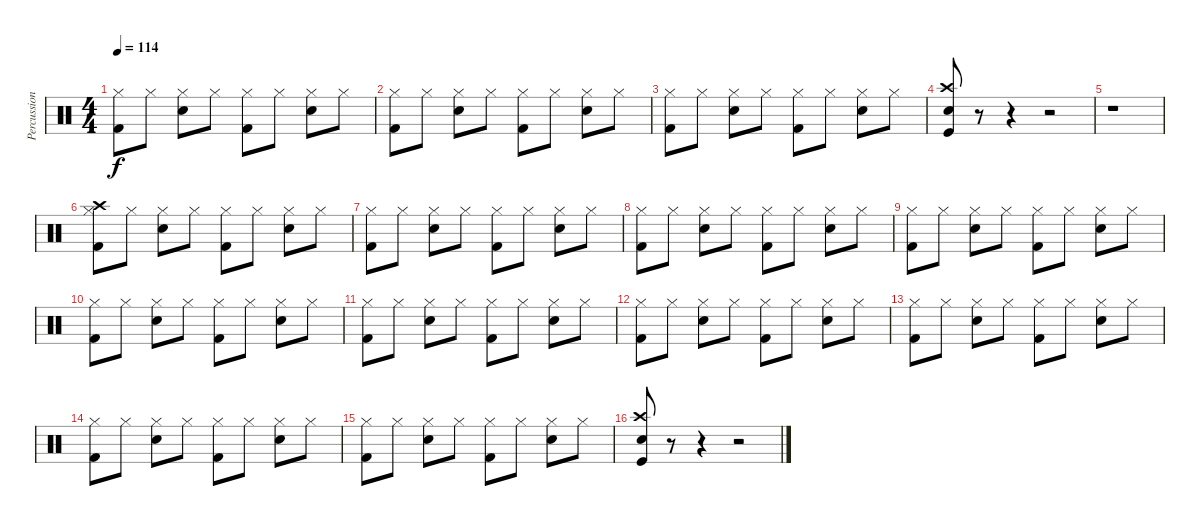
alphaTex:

\track ("Percussion" "Percussion") {instrument percussion}
\staff {score}
\articulation defaults
\ts (4 4)
\tempo 114
\clef neutral
\ks c
("Hi-Hat (closed)" "Kick (hit) 2").8{dy f} "Hi-Hat (closed)".8 ("Hi-Hat (closed)" "Snare (hit) 2").8 "Hi-Hat (closed)".8 ("Hi-Hat (closed)" "Kick (hit) 2").8 "Hi-Hat (closed)".8 ("Hi-Hat (closed)" "Snare (hit) 2").8 "Hi-Hat (closed)".8 |
("Hi-Hat (closed)" "Kick (hit) 2").8 "Hi-Hat (closed)".8 ("Hi-Hat (closed)" "Snare (hit) 2").8 "Hi-Hat (closed)".8 ("Hi-Hat (closed)" "Kick (hit) 2").8 "Hi-Hat (closed)".8 ("Hi-Hat (closed)" "Snare (hit) 2").8 "Hi-Hat (closed)".8 |
("Hi-Hat (closed)" "Kick (hit) 2").8 "Hi-Hat (closed)".8 ("Hi-Hat (closed)" "Snare (hit) 2").8 "Hi-Hat (closed)".8 ("Hi-Hat (closed)" "Kick (hit) 2").8 "Hi-Hat (closed)".8 ("Hi-Hat (closed)" "Snare (hit) 2").8 "Hi-Hat (closed)".8 |
("Crash high (hit)" "Snare (hit) 2" "Kick (hit)").8 r.8 r.4 r.2 |
r.1 |
("Crash high (hit)" "Hi-Hat (closed)" "Kick (hit) 2").8 "Hi-Hat (closed)".8 ("Hi-Hat (closed)" "Snare (hit) 2").8 "Hi-Hat (closed)".8 ("Hi-Hat (closed)" "Kick (hit) 2").8 "Hi-Hat (closed)".8 ("Hi-Hat (closed)" "Snare (hit) 2").8 "Hi-Hat (closed)".8 |
("Hi-Hat (closed)" "Kick (hit) 2").8 "Hi-Hat (closed)".8 ("Hi-Hat (closed)" "Snare (hit) 2").8 "Hi-Hat (closed)".8 ("Hi-Hat (closed)" "Kick (hit) 2").8 "Hi-Hat (closed)".8 ("Hi-Hat (closed)" "Snare (hit) 2").8 "Hi-Hat (closed)".8 |
("Hi-Hat (closed)" "Kick (hit) 2").8 "Hi-Hat (closed)".8 ("Hi-Hat (closed)" "Snare (hit) 2").8 "Hi-Hat (closed)".8 ("Hi-Hat (closed)" "Kick (hit) 2").8 "Hi-Hat (closed)".8 ("Hi-Hat (closed)" "Snare (hit) 2").8 "Hi-Hat (closed)".8 |
("Hi-Hat (closed)" "Kick (hit) 2").8 "Hi-Hat (closed)".8 ("Hi-Hat (closed)" "Snare (hit) 2").8 "Hi-Hat (closed)".8 ("Hi-Hat (closed)" "Kick (hit) 2").8 "Hi-Hat (closed)".8 ("Hi-Hat (closed)" "Snare (hit) 2").8 "Hi-Hat (closed)".8 |
("Hi-Hat (closed)" "Kick (hit) 2").8 "Hi-Hat (closed)".8 ("Hi-Hat (closed)" "Snare (hit) 2").8 "Hi-Hat (closed)".8 ("Hi-Hat (closed)" "Kick (hit) 2").8 "Hi-Hat (closed)".8 ("Hi-Hat (closed)" "Snare (hit) 2").8 "Hi-Hat (closed)".8 |
("Hi-Hat (closed)" "Kick (hit) 2").8 "Hi-Hat (closed)".8 ("Hi-Hat (closed)" "Snare (hit) 2").8 "Hi-Hat (closed)".8 ("Hi-Hat (closed)" "Kick (hit) 2").8 "Hi-Hat (closed)".8 ("Hi-Hat (closed)" "Snare (hit) 2").8 "Hi-Hat (closed)".8 |
("Hi-Hat (closed)" "Kick (hit) 2").8 "Hi-Hat (closed)".8 ("Hi-Hat (closed)" "Snare (hit) 2").8 "Hi-Hat (closed)".8 ("Hi-Hat (closed)" "Kick (hit) 2").8 "Hi-Hat (closed)".8 ("Hi-Hat (closed)" "Snare (hit) 2").8 "Hi-Hat (closed)".8 |
("Hi-Hat (closed)" "Kick (hit) 2").8 "Hi-Hat (closed)".8 ("Hi-Hat (closed)" "Snare (hit) 2").8 "Hi-Hat (closed)".8 ("Hi-Hat (closed)" "Kick (hit) 2").8 "Hi-Hat (closed)".8 ("Hi-Hat (closed)" "Snare (hit) 2").8 "Hi-Hat (closed)".8 |
("Hi-Hat (closed)" "Kick (hit) 2").8 "Hi-Hat (closed)".8 ("Hi-Hat (closed)" "Snare (hit) 2").8 "Hi-Hat (closed)".8 ("Hi-Hat (closed)" "Kick (hit) 2").8 "Hi-Hat (closed)".8 ("Hi-Hat (closed)" "Snare (hit) 2").8 "Hi-Hat (closed)".8 |
("Hi-Hat (closed)" "Kick (hit) 2").8 "Hi-Hat (closed)".8 ("Hi-Hat (closed)" "Snare (hit) 2").8 "Hi-Hat (closed)".8 ("Hi-Hat (closed)" "Kick (hit) 2").8 "Hi-Hat (closed)".8 ("Hi-Hat (closed)" "Snare (hit) 2").8 "Hi-Hat (closed)".8 |
("Crash high (hit)" "Snare (hit) 2" "Kick (hit)").8 r.8 r.4 r.2
